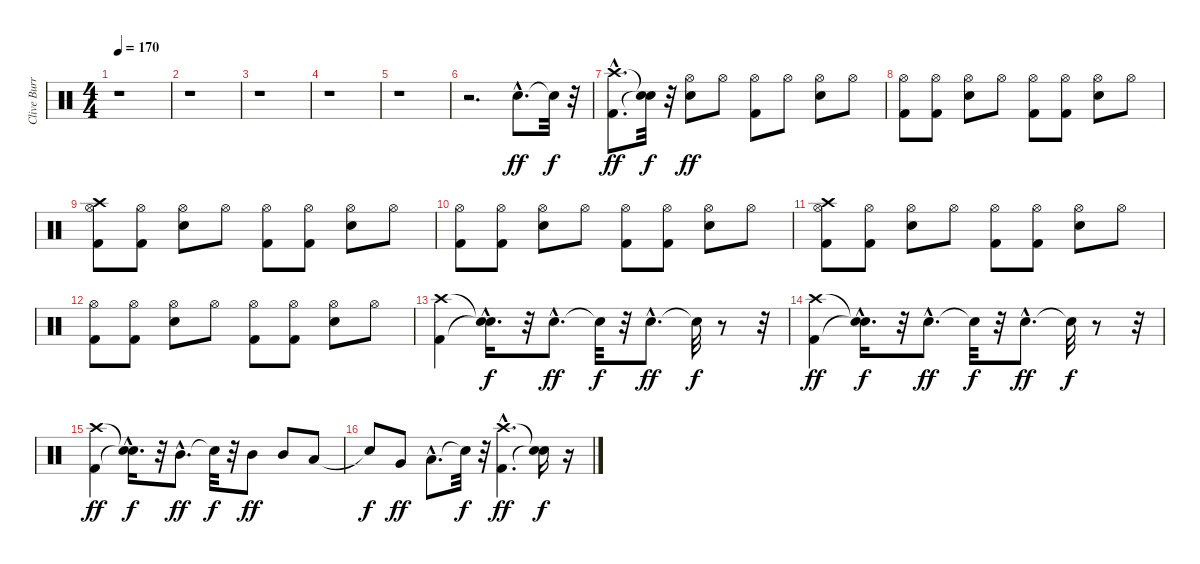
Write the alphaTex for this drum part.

\track ("Clive Burr" "Clive Burr") {instrument percussion}
\staff {score}
\articulation defaults
\ts (4 4)
\tempo 170
\clef neutral
\ks c
r.1{dy ff} |
r.1 |
r.1 |
r.1 |
r.1 |
r.2{d} "Snare (hit) 2"{hac}.8{d} "Snare (hit)"{t}.32{dy f} r.32 |
("Kick (hit) 2"{hac} "Crash high (hit)"{hac}).8{d dy ff} ("Snare (hit)"{t} "Snare (hit)"{t}).32{dy f} r.32 ("Snare (hit) 2" "Hi-Hat (open)").8{dy ff} "Hi-Hat (open)".8 ("Kick (hit) 2" "Hi-Hat (open)").8 "Hi-Hat (open)".8 ("Snare (hit) 2" "Hi-Hat (open)").8 "Hi-Hat (open)".8 |
("Kick (hit) 2" "Hi-Hat (open)").8 ("Kick (hit) 2" "Hi-Hat (open)").8 ("Snare (hit) 2" "Hi-Hat (open)").8 "Hi-Hat (open)".8 ("Kick (hit) 2" "Hi-Hat (open)").8 ("Kick (hit) 2" "Hi-Hat (open)").8 ("Snare (hit) 2" "Hi-Hat (open)").8 "Hi-Hat (open)".8 |
("Kick (hit) 2" "Hi-Hat (open)" "Crash high (hit)").8 ("Kick (hit) 2" "Hi-Hat (open)").8 ("Snare (hit) 2" "Hi-Hat (open)").8 "Hi-Hat (open)".8 ("Kick (hit) 2" "Hi-Hat (open)").8 ("Kick (hit) 2" "Hi-Hat (open)").8 ("Snare (hit) 2" "Hi-Hat (open)").8 "Hi-Hat (open)".8 |
("Kick (hit) 2" "Hi-Hat (open)").8 ("Kick (hit) 2" "Hi-Hat (open)").8 ("Snare (hit) 2" "Hi-Hat (open)").8 "Hi-Hat (open)".8 ("Kick (hit) 2" "Hi-Hat (open)").8 ("Kick (hit) 2" "Hi-Hat (open)").8 ("Snare (hit) 2" "Hi-Hat (open)").8 "Hi-Hat (open)".8 |
("Kick (hit) 2" "Hi-Hat (open)" "Crash high (hit)").8 ("Kick (hit) 2" "Hi-Hat (open)").8 ("Snare (hit) 2" "Hi-Hat (open)").8 "Hi-Hat (open)".8 ("Kick (hit) 2" "Hi-Hat (open)").8 ("Kick (hit) 2" "Hi-Hat (open)").8 ("Snare (hit) 2" "Hi-Hat (open)").8 "Hi-Hat (open)".8 |
("Kick (hit) 2" "Hi-Hat (open)").8 ("Kick (hit) 2" "Hi-Hat (open)").8 ("Snare (hit) 2" "Hi-Hat (open)").8 "Hi-Hat (open)".8 ("Kick (hit) 2" "Hi-Hat (open)").8 ("Kick (hit) 2" "Hi-Hat (open)").8 ("Snare (hit) 2" "Hi-Hat (open)").8 "Hi-Hat (open)".8 |
("Kick (hit) 2" "Crash high (hit)").4 ("Snare (hit)"{hac t} "Snare (hit)"{hac t}).16{d dy f} r.32 "Snare (hit) 2"{hac}.8{d dy ff} "Snare (hit)"{t}.32{dy f} r.32 "Snare (hit) 2"{hac}.8{d dy ff} "Snare (hit)"{t}.32{dy f} r.8 r.32 |
("Kick (hit) 2" "Crash high (hit)").4{dy ff} ("Snare (hit)"{hac t} "Snare (hit)"{hac t}).16{d dy f} r.32 "Snare (hit) 2"{hac}.8{d dy ff} "Snare (hit)"{t}.32{dy f} r.32 "Snare (hit) 2"{hac}.8{d dy ff} "Snare (hit)"{t}.32{dy f} r.8 r.32 |
("Kick (hit) 2" "Crash high (hit)").4{dy ff} ("Snare (hit)"{hac t} "Snare (hit)"{hac t}).16{d dy f} r.32 "Mid Tom (hit)"{hac}.8{d dy ff} "Snare (hit)"{t}.32{dy f} r.32 "Mid Tom (hit)".8{dy ff} "Mid Tom (hit)".8 "Low Tom (hit)".8 |
"Snare (hit)"{t}.8{dy f} "Very Low Tom (hit)".8{dy ff} "Low Floor Tom (hit)"{hac}.8{d} "Snare (hit)"{t}.32{dy f} r.32 ("Kick (hit) 2"{hac} "Crash high (hit)"{hac}).4{d dy ff} ("Snare (hit)"{t} "Snare (hit)"{t}).16{dy f} r.16
